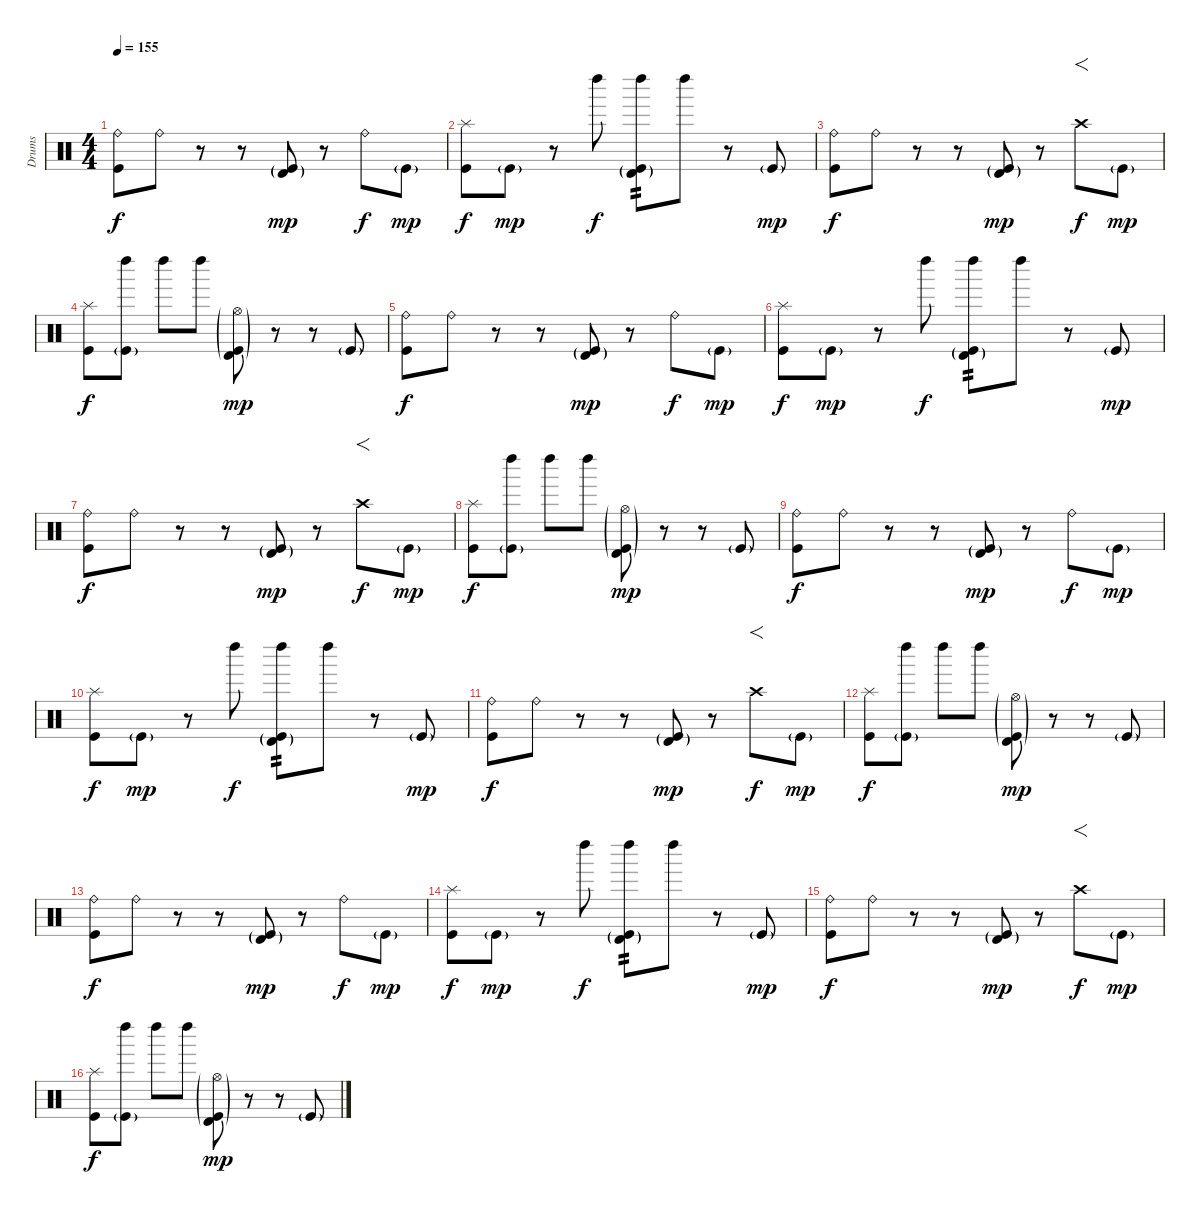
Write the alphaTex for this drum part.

\track ("Drums" "Drums") {instrument percussion}
\staff {score}
\articulation defaults
\ts (4 4)
\tempo 155
\clef neutral
\ks c
("Kick (hit)" "Ride (bell)").8{dy f} "Ride (bell)".8 r.8 r.8 ("Timbale high (hit)"{g} "Kick (hit)"{g}).8{dy mp} r.8 "Ride (bell)".8{dy f} "Kick (hit)"{g}.8{dy mp} |
("Kick (hit)" "Splash (hit)").8{dy f} "Kick (hit)"{g}.8{dy mp} r.8 "Left Maraca (hit)".8{dy f} ("Timbale high (hit)"{g} "Kick (hit)"{g} "Left Maraca (hit)").8{tp 2} "Left Maraca (hit)".8 r.8 "Kick (hit)"{g}.8{dy mp} |
("Kick (hit)" "Ride (bell)").8{dy f} "Ride (bell)".8 r.8 r.8 ("Timbale high (hit)"{g} "Kick (hit)"{g}).8{dy mp} r.8 "Crash high (hit)".8{f dy f} "Kick (hit)"{g}.8{dy mp} |
("Kick (hit)" "Splash (hit)").8{dy f} ("Kick (hit)"{g} "Left Maraca (hit)").8 "Left Maraca (hit)".8 "Left Maraca (hit)".8 ("Timbale high (hit)"{g} "Kick (hit)"{g} "Hi-Hat (open)"{g}).8{dy mp} r.8 r.8 "Kick (hit)"{g}.8 |
("Kick (hit)" "Ride (bell)").8{dy f} "Ride (bell)".8 r.8 r.8 ("Timbale high (hit)"{g} "Kick (hit)"{g}).8{dy mp} r.8 "Ride (bell)".8{dy f} "Kick (hit)"{g}.8{dy mp} |
("Kick (hit)" "Splash (hit)").8{dy f} "Kick (hit)"{g}.8{dy mp} r.8 "Left Maraca (hit)".8{dy f} ("Timbale high (hit)"{g} "Kick (hit)"{g} "Left Maraca (hit)").8{tp 2} "Left Maraca (hit)".8 r.8 "Kick (hit)"{g}.8{dy mp} |
("Kick (hit)" "Ride (bell)").8{dy f} "Ride (bell)".8 r.8 r.8 ("Timbale high (hit)"{g} "Kick (hit)"{g}).8{dy mp} r.8 "Crash high (hit)".8{f dy f} "Kick (hit)"{g}.8{dy mp} |
("Kick (hit)" "Splash (hit)").8{dy f} ("Kick (hit)"{g} "Left Maraca (hit)").8 "Left Maraca (hit)".8 "Left Maraca (hit)".8 ("Timbale high (hit)"{g} "Kick (hit)"{g} "Hi-Hat (open)"{g}).8{dy mp} r.8 r.8 "Kick (hit)"{g}.8 |
("Kick (hit)" "Ride (bell)").8{dy f} "Ride (bell)".8 r.8 r.8 ("Timbale high (hit)"{g} "Kick (hit)"{g}).8{dy mp} r.8 "Ride (bell)".8{dy f} "Kick (hit)"{g}.8{dy mp} |
("Kick (hit)" "Splash (hit)").8{dy f} "Kick (hit)"{g}.8{dy mp} r.8 "Left Maraca (hit)".8{dy f} ("Timbale high (hit)"{g} "Kick (hit)"{g} "Left Maraca (hit)").8{tp 2} "Left Maraca (hit)".8 r.8 "Kick (hit)"{g}.8{dy mp} |
("Kick (hit)" "Ride (bell)").8{dy f} "Ride (bell)".8 r.8 r.8 ("Timbale high (hit)"{g} "Kick (hit)"{g}).8{dy mp} r.8 "Crash high (hit)".8{f dy f} "Kick (hit)"{g}.8{dy mp} |
("Kick (hit)" "Splash (hit)").8{dy f} ("Kick (hit)"{g} "Left Maraca (hit)").8 "Left Maraca (hit)".8 "Left Maraca (hit)".8 ("Timbale high (hit)"{g} "Kick (hit)"{g} "Hi-Hat (open)"{g}).8{dy mp} r.8 r.8 "Kick (hit)"{g}.8 |
("Kick (hit)" "Ride (bell)").8{dy f} "Ride (bell)".8 r.8 r.8 ("Timbale high (hit)"{g} "Kick (hit)"{g}).8{dy mp} r.8 "Ride (bell)".8{dy f} "Kick (hit)"{g}.8{dy mp} |
("Kick (hit)" "Splash (hit)").8{dy f} "Kick (hit)"{g}.8{dy mp} r.8 "Left Maraca (hit)".8{dy f} ("Timbale high (hit)"{g} "Kick (hit)"{g} "Left Maraca (hit)").8{tp 2} "Left Maraca (hit)".8 r.8 "Kick (hit)"{g}.8{dy mp} |
("Kick (hit)" "Ride (bell)").8{dy f} "Ride (bell)".8 r.8 r.8 ("Timbale high (hit)"{g} "Kick (hit)"{g}).8{dy mp} r.8 "Crash high (hit)".8{f dy f} "Kick (hit)"{g}.8{dy mp} |
("Kick (hit)" "Splash (hit)").8{dy f} ("Kick (hit)"{g} "Left Maraca (hit)").8 "Left Maraca (hit)".8 "Left Maraca (hit)".8 ("Timbale high (hit)"{g} "Kick (hit)"{g} "Hi-Hat (open)"{g}).8{dy mp} r.8 r.8 "Kick (hit)"{g}.8
